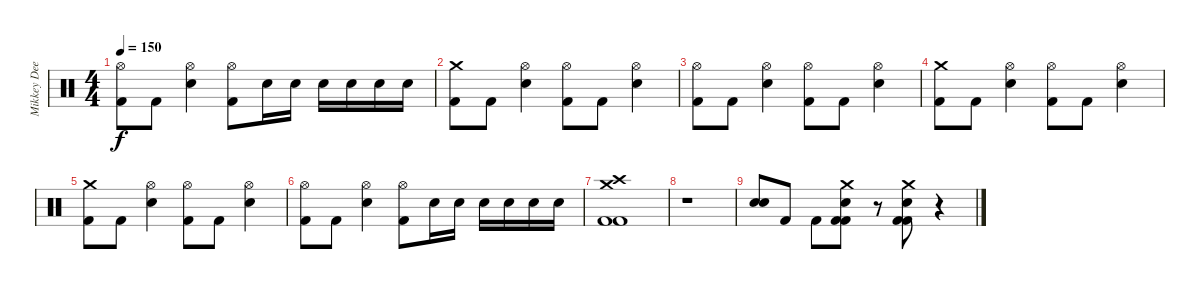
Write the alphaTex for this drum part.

\track ("Mikkey Dee" "Mikkey Dee") {instrument percussion}
\staff {score}
\articulation defaults
\ts (4 4)
\tempo 150
\clef neutral
\ks c
("Hi-Hat (open)" "Kick (hit) 2").8{dy f} "Kick (hit) 2".8 ("Hi-Hat (open)" "Electric Snare (hit)").4 ("Hi-Hat (open)" "Kick (hit) 2").8 "Electric Snare (hit)".16 "Electric Snare (hit)".16 "Electric Snare (hit)".16 "Electric Snare (hit)".16 "Electric Snare (hit)".16 "Electric Snare (hit)".16 |
("Crash medium (hit)" "Kick (hit) 2").8 "Kick (hit) 2".8 ("Hi-Hat (open)" "Electric Snare (hit)").4 ("Hi-Hat (open)" "Kick (hit) 2").8 "Kick (hit) 2".8 ("Hi-Hat (open)" "Electric Snare (hit)").4 |
("Hi-Hat (open)" "Kick (hit) 2").8 "Kick (hit) 2".8 ("Hi-Hat (open)" "Electric Snare (hit)").4 ("Hi-Hat (open)" "Kick (hit) 2").8 "Kick (hit) 2".8 ("Hi-Hat (open)" "Electric Snare (hit)").4 |
("Crash medium (hit)" "Kick (hit) 2").8 "Kick (hit) 2".8 ("Hi-Hat (open)" "Electric Snare (hit)").4 ("Hi-Hat (open)" "Kick (hit) 2").8 "Kick (hit) 2".8 ("Hi-Hat (open)" "Electric Snare (hit)").4 |
("Crash medium (hit)" "Kick (hit) 2").8 "Kick (hit) 2".8 ("Hi-Hat (open)" "Electric Snare (hit)").4 ("Hi-Hat (open)" "Kick (hit) 2").8 "Kick (hit) 2".8 ("Hi-Hat (open)" "Electric Snare (hit)").4 |
("Hi-Hat (open)" "Kick (hit) 2").8 "Kick (hit) 2".8 ("Hi-Hat (open)" "Electric Snare (hit)").4 ("Hi-Hat (open)" "Kick (hit) 2").8 "Electric Snare (hit)".16 "Electric Snare (hit)".16 "Electric Snare (hit)".16 "Electric Snare (hit)".16 "Electric Snare (hit)".16 "Electric Snare (hit)".16 |
("Crash high (hit)" "Crash medium (hit)" "Kick (hit) 2" "Kick (hit) 2").1 |
r.1 |
("Electric Snare (hit)" "Electric Snare (hit)").8 "Kick (hit) 2".8 "Kick (hit) 2".8 ("Crash medium (hit)" "Electric Snare (hit)" "Kick (hit) 2" "Kick (hit) 2").8 r.8 ("Crash medium (hit)" "Electric Snare (hit)" "Kick (hit) 2" "Kick (hit) 2").8 r.4
